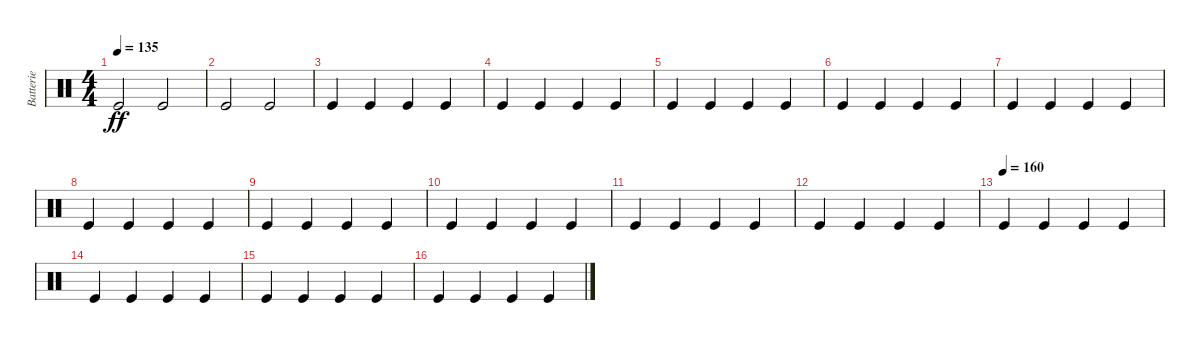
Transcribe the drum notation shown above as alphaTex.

\track ("Batterie" "Batterie") {instrument percussion}
\staff {score}
\articulation defaults
\ts (4 4)
\tempo 135
\clef neutral
\ks c "Kick (hit)".2{dy ff} "Kick (hit)".2
|
"Kick (hit)".2 "Kick (hit)".2 |
"Kick (hit)".4 "Kick (hit)".4 "Kick (hit)".4 "Kick (hit)".4 |
"Kick (hit)".4 "Kick (hit)".4 "Kick (hit)".4 "Kick (hit)".4 |
"Kick (hit)".4 "Kick (hit)".4 "Kick (hit)".4 "Kick (hit)".4 |
"Kick (hit)".4 "Kick (hit)".4 "Kick (hit)".4 "Kick (hit)".4 |
"Kick (hit)".4 "Kick (hit)".4 "Kick (hit)".4 "Kick (hit)".4 |
"Kick (hit)".4 "Kick (hit)".4 "Kick (hit)".4 "Kick (hit)".4 |
"Kick (hit)".4 "Kick (hit)".4 "Kick (hit)".4 "Kick (hit)".4 |
"Kick (hit)".4 "Kick (hit)".4 "Kick (hit)".4 "Kick (hit)".4 |
"Kick (hit)".4 "Kick (hit)".4 "Kick (hit)".4 "Kick (hit)".4 |
"Kick (hit)".4 "Kick (hit)".4 "Kick (hit)".4 "Kick (hit)".4 |
\tempo (160)
"Kick (hit)".4 "Kick (hit)".4 "Kick (hit)".4 "Kick (hit)".4 |
"Kick (hit)".4 "Kick (hit)".4 "Kick (hit)".4 "Kick (hit)".4 |
"Kick (hit)".4 "Kick (hit)".4 "Kick (hit)".4 "Kick (hit)".4 |
"Kick (hit)".4 "Kick (hit)".4 "Kick (hit)".4 "Kick (hit)".4
